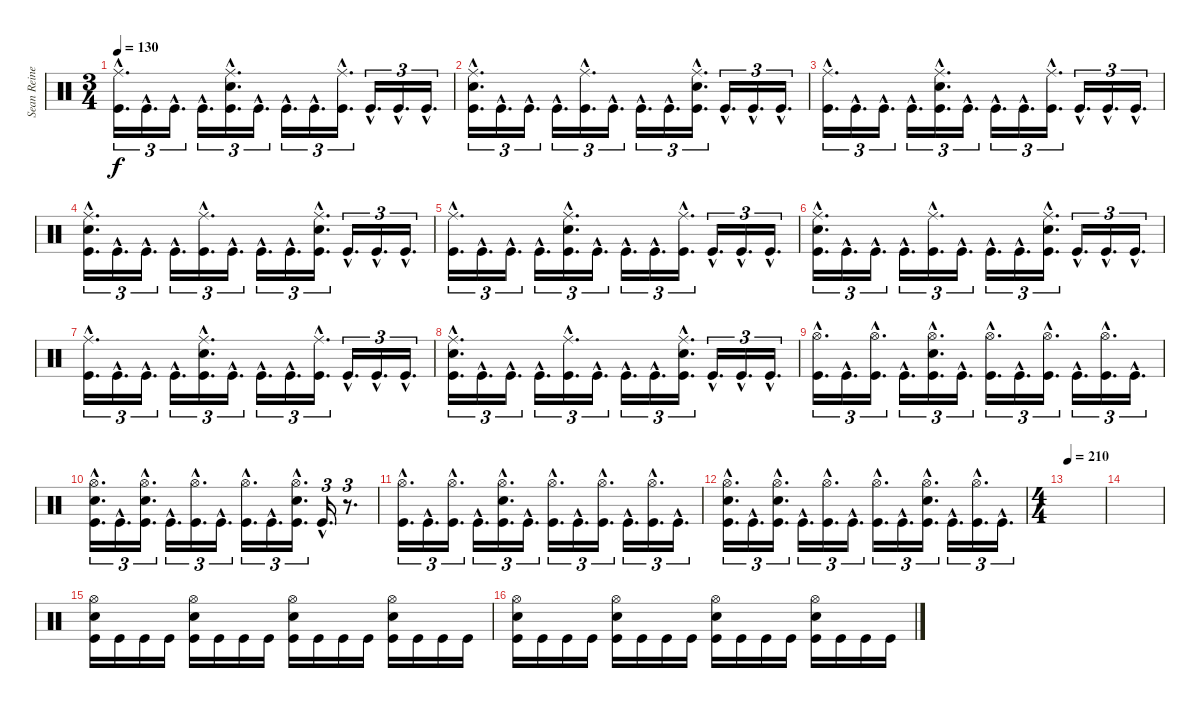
\track ("Sean Reinert" "Sean Reine") {instrument percussion}
\staff {score}
\articulation defaults
\ts (3 4)
\tempo 130
\clef neutral
\ks c
("Ride (middle)"{hac} "Kick (hit)"{hac}).16{d tu (3 2) dy f} "Kick (hit)"{hac}.16{d tu (3 2)} "Kick (hit)"{hac}.16{d tu (3 2)} "Kick (hit)"{hac}.16{d tu (3 2)} ("Ride (middle)"{hac} "Snare (hit) 2"{hac} "Kick (hit)"{hac}).16{d tu (3 2)} "Kick (hit)"{hac}.16{d tu (3 2)} "Kick (hit)"{hac}.16{d tu (3 2)} "Kick (hit)"{hac}.16{d tu (3 2)} ("Ride (middle)"{hac} "Kick (hit)"{hac}).16{d tu (3 2)} "Kick (hit)"{hac}.16{d tu (3 2)} "Kick (hit)"{hac}.16{d tu (3 2)} "Kick (hit)"{hac}.16{d tu (3 2)} |
("Ride (middle)"{hac} "Snare (hit) 2"{hac} "Kick (hit)"{hac}).16{d tu (3 2)} "Kick (hit)"{hac}.16{d tu (3 2)} "Kick (hit)"{hac}.16{d tu (3 2)} "Kick (hit)"{hac}.16{d tu (3 2)} ("Ride (middle)"{hac} "Kick (hit)"{hac}).16{d tu (3 2)} "Kick (hit)"{hac}.16{d tu (3 2)} "Kick (hit)"{hac}.16{d tu (3 2)} "Kick (hit)"{hac}.16{d tu (3 2)} ("Ride (middle)"{hac} "Snare (hit) 2"{hac} "Kick (hit)"{hac}).16{d tu (3 2)} "Kick (hit)"{hac}.16{d tu (3 2)} "Kick (hit)"{hac}.16{d tu (3 2)} "Kick (hit)"{hac}.16{d tu (3 2)} |
("Ride (middle)"{hac} "Kick (hit)"{hac}).16{d tu (3 2)} "Kick (hit)"{hac}.16{d tu (3 2)} "Kick (hit)"{hac}.16{d tu (3 2)} "Kick (hit)"{hac}.16{d tu (3 2)} ("Ride (middle)"{hac} "Snare (hit) 2"{hac} "Kick (hit)"{hac}).16{d tu (3 2)} "Kick (hit)"{hac}.16{d tu (3 2)} "Kick (hit)"{hac}.16{d tu (3 2)} "Kick (hit)"{hac}.16{d tu (3 2)} ("Ride (middle)"{hac} "Kick (hit)"{hac}).16{d tu (3 2)} "Kick (hit)"{hac}.16{d tu (3 2)} "Kick (hit)"{hac}.16{d tu (3 2)} "Kick (hit)"{hac}.16{d tu (3 2)} |
("Ride (middle)"{hac} "Snare (hit) 2"{hac} "Kick (hit)"{hac}).16{d tu (3 2)} "Kick (hit)"{hac}.16{d tu (3 2)} "Kick (hit)"{hac}.16{d tu (3 2)} "Kick (hit)"{hac}.16{d tu (3 2)} ("Ride (middle)"{hac} "Kick (hit)"{hac}).16{d tu (3 2)} "Kick (hit)"{hac}.16{d tu (3 2)} "Kick (hit)"{hac}.16{d tu (3 2)} "Kick (hit)"{hac}.16{d tu (3 2)} ("Ride (middle)"{hac} "Snare (hit) 2"{hac} "Kick (hit)"{hac}).16{d tu (3 2)} "Kick (hit)"{hac}.16{d tu (3 2)} "Kick (hit)"{hac}.16{d tu (3 2)} "Kick (hit)"{hac}.16{d tu (3 2)} |
("Ride (middle)"{hac} "Kick (hit)"{hac}).16{d tu (3 2)} "Kick (hit)"{hac}.16{d tu (3 2)} "Kick (hit)"{hac}.16{d tu (3 2)} "Kick (hit)"{hac}.16{d tu (3 2)} ("Ride (middle)"{hac} "Snare (hit) 2"{hac} "Kick (hit)"{hac}).16{d tu (3 2)} "Kick (hit)"{hac}.16{d tu (3 2)} "Kick (hit)"{hac}.16{d tu (3 2)} "Kick (hit)"{hac}.16{d tu (3 2)} ("Ride (middle)"{hac} "Kick (hit)"{hac}).16{d tu (3 2)} "Kick (hit)"{hac}.16{d tu (3 2)} "Kick (hit)"{hac}.16{d tu (3 2)} "Kick (hit)"{hac}.16{d tu (3 2)} |
("Ride (middle)"{hac} "Snare (hit) 2"{hac} "Kick (hit)"{hac}).16{d tu (3 2)} "Kick (hit)"{hac}.16{d tu (3 2)} "Kick (hit)"{hac}.16{d tu (3 2)} "Kick (hit)"{hac}.16{d tu (3 2)} ("Ride (middle)"{hac} "Kick (hit)"{hac}).16{d tu (3 2)} "Kick (hit)"{hac}.16{d tu (3 2)} "Kick (hit)"{hac}.16{d tu (3 2)} "Kick (hit)"{hac}.16{d tu (3 2)} ("Ride (middle)"{hac} "Snare (hit) 2"{hac} "Kick (hit)"{hac}).16{d tu (3 2)} "Kick (hit)"{hac}.16{d tu (3 2)} "Kick (hit)"{hac}.16{d tu (3 2)} "Kick (hit)"{hac}.16{d tu (3 2)} |
("Ride (middle)"{hac} "Kick (hit)"{hac}).16{d tu (3 2)} "Kick (hit)"{hac}.16{d tu (3 2)} "Kick (hit)"{hac}.16{d tu (3 2)} "Kick (hit)"{hac}.16{d tu (3 2)} ("Ride (middle)"{hac} "Snare (hit) 2"{hac} "Kick (hit)"{hac}).16{d tu (3 2)} "Kick (hit)"{hac}.16{d tu (3 2)} "Kick (hit)"{hac}.16{d tu (3 2)} "Kick (hit)"{hac}.16{d tu (3 2)} ("Ride (middle)"{hac} "Kick (hit)"{hac}).16{d tu (3 2)} "Kick (hit)"{hac}.16{d tu (3 2)} "Kick (hit)"{hac}.16{d tu (3 2)} "Kick (hit)"{hac}.16{d tu (3 2)} |
("Ride (middle)"{hac} "Snare (hit) 2"{hac} "Kick (hit)"{hac}).16{d tu (3 2)} "Kick (hit)"{hac}.16{d tu (3 2)} "Kick (hit)"{hac}.16{d tu (3 2)} "Kick (hit)"{hac}.16{d tu (3 2)} ("Ride (middle)"{hac} "Kick (hit)"{hac}).16{d tu (3 2)} "Kick (hit)"{hac}.16{d tu (3 2)} "Kick (hit)"{hac}.16{d tu (3 2)} "Kick (hit)"{hac}.16{d tu (3 2)} ("Ride (middle)"{hac} "Snare (hit) 2"{hac} "Kick (hit)"{hac}).16{d tu (3 2)} "Kick (hit)"{hac}.16{d tu (3 2)} "Kick (hit)"{hac}.16{d tu (3 2)} "Kick (hit)"{hac}.16{d tu (3 2)} |
("Hi-Hat (open)"{hac} "Kick (hit)"{hac}).16{d tu (3 2)} "Kick (hit)"{hac}.16{d tu (3 2)} ("Hi-Hat (open)"{hac} "Kick (hit)"{hac}).16{d tu (3 2)} "Kick (hit)"{hac}.16{d tu (3 2)} ("Hi-Hat (open)"{hac} "Snare (hit) 2"{hac} "Kick (hit)"{hac}).16{d tu (3 2)} "Kick (hit)"{hac}.16{d tu (3 2)} ("Hi-Hat (open)"{hac} "Kick (hit)"{hac}).16{d tu (3 2)} "Kick (hit)"{hac}.16{d tu (3 2)} ("Hi-Hat (open)"{hac} "Kick (hit)"{hac}).16{d tu (3 2)} "Kick (hit)"{hac}.16{d tu (3 2)} ("Hi-Hat (open)"{hac} "Kick (hit)"{hac}).16{d tu (3 2)} "Kick (hit)"{hac}.16{d tu (3 2)} |
("Hi-Hat (open)"{hac} "Snare (hit) 2"{hac} "Kick (hit)"{hac}).16{d tu (3 2)} "Kick (hit)"{hac}.16{d tu (3 2)} ("Hi-Hat (open)"{hac} "Snare (hit) 2"{hac} "Kick (hit)"{hac}).16{d tu (3 2)} "Kick (hit)"{hac}.16{d tu (3 2)} ("Hi-Hat (open)"{hac} "Kick (hit)"{hac}).16{d tu (3 2)} "Kick (hit)"{hac}.16{d tu (3 2)} ("Hi-Hat (open)"{hac} "Kick (hit)"{hac}).16{d tu (3 2)} "Kick (hit)"{hac}.16{d tu (3 2)} ("Hi-Hat (open)"{hac} "Snare (hit) 2"{hac} "Kick (hit)"{hac}).16{d tu (3 2)} "Kick (hit)"{hac}.16{d tu (3 2)} r.8{d tu (3 2)} |
("Hi-Hat (open)"{hac} "Kick (hit)"{hac}).16{d tu (3 2)} "Kick (hit)"{hac}.16{d tu (3 2)} ("Hi-Hat (open)"{hac} "Kick (hit)"{hac}).16{d tu (3 2)} "Kick (hit)"{hac}.16{d tu (3 2)} ("Hi-Hat (open)"{hac} "Snare (hit) 2"{hac} "Kick (hit)"{hac}).16{d tu (3 2)} "Kick (hit)"{hac}.16{d tu (3 2)} ("Hi-Hat (open)"{hac} "Kick (hit)"{hac}).16{d tu (3 2)} "Kick (hit)"{hac}.16{d tu (3 2)} ("Hi-Hat (open)"{hac} "Kick (hit)"{hac}).16{d tu (3 2)} "Kick (hit)"{hac}.16{d tu (3 2)} ("Hi-Hat (open)"{hac} "Kick (hit)"{hac}).16{d tu (3 2)} "Kick (hit)"{hac}.16{d tu (3 2)} |
("Hi-Hat (open)"{hac} "Snare (hit) 2"{hac} "Kick (hit)"{hac}).16{d tu (3 2)} "Kick (hit)"{hac}.16{d tu (3 2)} ("Hi-Hat (open)"{hac} "Snare (hit) 2"{hac} "Kick (hit)"{hac}).16{d tu (3 2)} "Kick (hit)"{hac}.16{d tu (3 2)} ("Hi-Hat (open)"{hac} "Kick (hit)"{hac}).16{d tu (3 2)} "Kick (hit)"{hac}.16{d tu (3 2)} ("Hi-Hat (open)"{hac} "Kick (hit)"{hac}).16{d tu (3 2)} "Kick (hit)"{hac}.16{d tu (3 2)} ("Hi-Hat (open)"{hac} "Snare (hit) 2"{hac} "Kick (hit)"{hac}).16{d tu (3 2)} "Kick (hit)"{hac}.16{d tu (3 2)} ("Hi-Hat (open)"{hac} "Kick (hit)"{hac}).16{d tu (3 2)} "Kick (hit)"{hac}.16{d tu (3 2)} |
\ts (4 4)
\tempo 210
|
|
("Hi-Hat (open)" "Snare (hit) 2" "Kick (hit)").16 "Kick (hit)".16 "Kick (hit)".16 "Kick (hit)".16 ("Hi-Hat (open)" "Snare (hit) 2" "Kick (hit)").16 "Kick (hit)".16 "Kick (hit)".16 "Kick (hit)".16 ("Hi-Hat (open)" "Snare (hit) 2" "Kick (hit)").16 "Kick (hit)".16 "Kick (hit)".16 "Kick (hit)".16 ("Hi-Hat (open)" "Snare (hit) 2" "Kick (hit)").16 "Kick (hit)".16 "Kick (hit)".16 "Kick (hit)".16 |
("Hi-Hat (open)" "Snare (hit) 2" "Kick (hit)").16 "Kick (hit)".16 "Kick (hit)".16 "Kick (hit)".16 ("Hi-Hat (open)" "Snare (hit) 2" "Kick (hit)").16 "Kick (hit)".16 "Kick (hit)".16 "Kick (hit)".16 ("Hi-Hat (open)" "Snare (hit) 2" "Kick (hit)").16 "Kick (hit)".16 "Kick (hit)".16 "Kick (hit)".16 ("Hi-Hat (open)" "Snare (hit) 2" "Kick (hit)").16 "Kick (hit)".16 "Kick (hit)".16 "Kick (hit)".16
